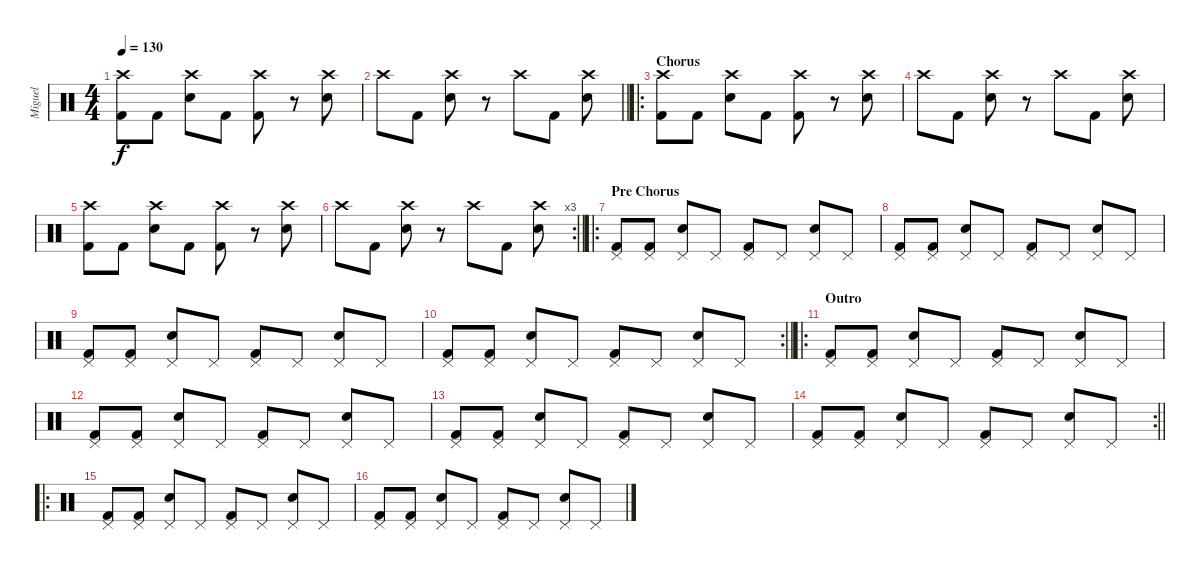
\track ("Miguel" "Miguel") {instrument percussion}
\staff {score}
\articulation defaults
\ts (4 4)
\tempo 130
\clef neutral
\ks c
("Crash high (hit)" "Kick (hit) 2").8{dy f} "Kick (hit) 2".8 ("Crash high (hit)" "Snare (hit) 2").8 "Kick (hit) 2".8 ("Crash high (hit)" "Kick (hit) 2").8 r.8 ("Crash high (hit)" "Snare (hit) 2").8 |
\barLineRight lightlight "Crash high (hit)".8 "Kick (hit) 2".8
("Crash high (hit)" "Snare (hit) 2").8 r.8 "Crash high (hit)".8 "Kick (hit) 2".8 ("Crash high (hit)" "Snare (hit) 2").8 |
\ro
\section ("" "Chorus")
("Crash high (hit)" "Kick (hit) 2").8 "Kick (hit) 2".8 ("Crash high (hit)" "Snare (hit) 2").8 "Kick (hit) 2".8 ("Crash high (hit)" "Kick (hit) 2").8 r.8 ("Crash high (hit)" "Snare (hit) 2").8 |
"Crash high (hit)".8 "Kick (hit) 2".8 ("Crash high (hit)" "Snare (hit) 2").8 r.8 "Crash high (hit)".8 "Kick (hit) 2".8 ("Crash high (hit)" "Snare (hit) 2").8 |
("Crash high (hit)" "Kick (hit) 2").8 "Kick (hit) 2".8 ("Crash high (hit)" "Snare (hit) 2").8 "Kick (hit) 2".8 ("Crash high (hit)" "Kick (hit) 2").8 r.8 ("Crash high (hit)" "Snare (hit) 2").8 |
\rc 3
\barLineRight lightlight "Crash high (hit)".8 "Kick (hit) 2".8
("Crash high (hit)" "Snare (hit) 2").8 r.8 "Crash high (hit)".8 "Kick (hit) 2".8 ("Crash high (hit)" "Snare (hit) 2").8 |
\ro
\section ("" "Pre Chorus")
("Pedal Hi-Hat (hit)" "Kick (hit) 2").8 ("Pedal Hi-Hat (hit)" "Kick (hit) 2").8 ("Pedal Hi-Hat (hit)" "Snare (hit) 2").8 "Pedal Hi-Hat (hit)".8 ("Pedal Hi-Hat (hit)" "Kick (hit) 2").8 "Pedal Hi-Hat (hit)".8 ("Pedal Hi-Hat (hit)" "Snare (hit) 2").8 "Pedal Hi-Hat (hit)".8 |
("Pedal Hi-Hat (hit)" "Kick (hit) 2").8 ("Pedal Hi-Hat (hit)" "Kick (hit) 2").8 ("Pedal Hi-Hat (hit)" "Snare (hit) 2").8 "Pedal Hi-Hat (hit)".8 ("Pedal Hi-Hat (hit)" "Kick (hit) 2").8 "Pedal Hi-Hat (hit)".8 ("Pedal Hi-Hat (hit)" "Snare (hit) 2").8 "Pedal Hi-Hat (hit)".8 |
("Pedal Hi-Hat (hit)" "Kick (hit) 2").8 ("Pedal Hi-Hat (hit)" "Kick (hit) 2").8 ("Pedal Hi-Hat (hit)" "Snare (hit) 2").8 "Pedal Hi-Hat (hit)".8 ("Pedal Hi-Hat (hit)" "Kick (hit) 2").8 "Pedal Hi-Hat (hit)".8 ("Pedal Hi-Hat (hit)" "Snare (hit) 2").8 "Pedal Hi-Hat (hit)".8 |
\rc 2
\barLineRight lightlight
("Pedal Hi-Hat (hit)" "Kick (hit) 2").8 ("Pedal Hi-Hat (hit)" "Kick (hit) 2").8 ("Pedal Hi-Hat (hit)" "Snare (hit) 2").8 "Pedal Hi-Hat (hit)".8 ("Pedal Hi-Hat (hit)" "Kick (hit) 2").8 "Pedal Hi-Hat (hit)".8 ("Pedal Hi-Hat (hit)" "Snare (hit) 2").8 "Pedal Hi-Hat (hit)".8 |
\ro
\section ("" "Outro")
("Pedal Hi-Hat (hit)" "Kick (hit) 2").8 ("Pedal Hi-Hat (hit)" "Kick (hit) 2").8 ("Pedal Hi-Hat (hit)" "Snare (hit) 2").8 "Pedal Hi-Hat (hit)".8 ("Pedal Hi-Hat (hit)" "Kick (hit) 2").8 "Pedal Hi-Hat (hit)".8 ("Pedal Hi-Hat (hit)" "Snare (hit) 2").8 "Pedal Hi-Hat (hit)".8 |
("Pedal Hi-Hat (hit)" "Kick (hit) 2").8 ("Pedal Hi-Hat (hit)" "Kick (hit) 2").8 ("Pedal Hi-Hat (hit)" "Snare (hit) 2").8 "Pedal Hi-Hat (hit)".8 ("Pedal Hi-Hat (hit)" "Kick (hit) 2").8 "Pedal Hi-Hat (hit)".8 ("Pedal Hi-Hat (hit)" "Snare (hit) 2").8 "Pedal Hi-Hat (hit)".8 |
("Pedal Hi-Hat (hit)" "Kick (hit) 2").8 ("Pedal Hi-Hat (hit)" "Kick (hit) 2").8 ("Pedal Hi-Hat (hit)" "Snare (hit) 2").8 "Pedal Hi-Hat (hit)".8 ("Pedal Hi-Hat (hit)" "Kick (hit) 2").8 "Pedal Hi-Hat (hit)".8 ("Pedal Hi-Hat (hit)" "Snare (hit) 2").8 "Pedal Hi-Hat (hit)".8 |
\rc 2
\barLineRight lightlight
("Pedal Hi-Hat (hit)" "Kick (hit) 2").8 ("Pedal Hi-Hat (hit)" "Kick (hit) 2").8 ("Pedal Hi-Hat (hit)" "Snare (hit) 2").8 "Pedal Hi-Hat (hit)".8 ("Pedal Hi-Hat (hit)" "Kick (hit) 2").8 "Pedal Hi-Hat (hit)".8 ("Pedal Hi-Hat (hit)" "Snare (hit) 2").8 "Pedal Hi-Hat (hit)".8 |
\ro
("Pedal Hi-Hat (hit)" "Kick (hit) 2").8 ("Pedal Hi-Hat (hit)" "Kick (hit) 2").8 ("Pedal Hi-Hat (hit)" "Snare (hit) 2").8 "Pedal Hi-Hat (hit)".8 ("Pedal Hi-Hat (hit)" "Kick (hit) 2").8 "Pedal Hi-Hat (hit)".8 ("Pedal Hi-Hat (hit)" "Snare (hit) 2").8 "Pedal Hi-Hat (hit)".8 |
("Pedal Hi-Hat (hit)" "Kick (hit) 2").8 ("Pedal Hi-Hat (hit)" "Kick (hit) 2").8 ("Pedal Hi-Hat (hit)" "Snare (hit) 2").8 "Pedal Hi-Hat (hit)".8 ("Pedal Hi-Hat (hit)" "Kick (hit) 2").8 "Pedal Hi-Hat (hit)".8 ("Pedal Hi-Hat (hit)" "Snare (hit) 2").8 "Pedal Hi-Hat (hit)".8
